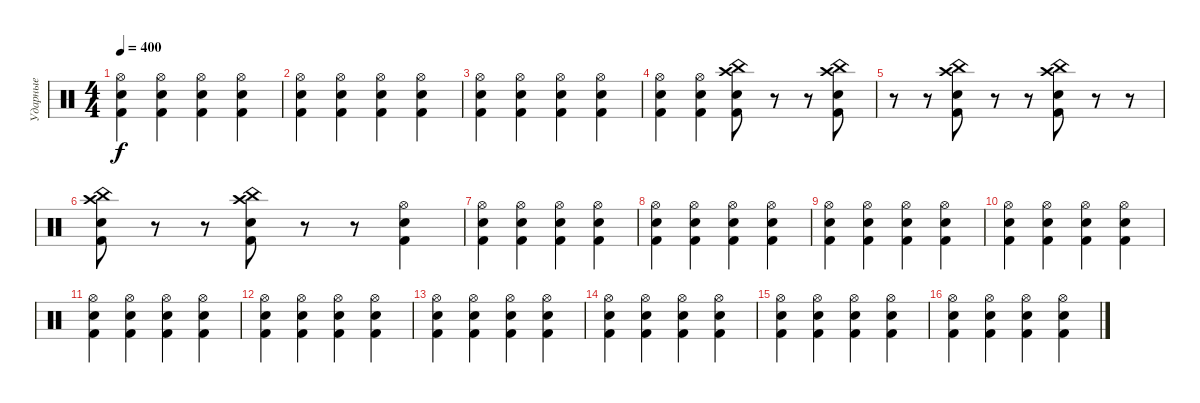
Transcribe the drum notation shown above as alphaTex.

\track ("Ударные" "Ударные") {instrument percussion}
\staff {score}
\articulation defaults
\ts (4 4)
\tempo 400
\clef neutral
\ks c
("Electric Snare (hit)" "Kick (hit) 2" "Hi-Hat (open)").4{dy f} ("Hi-Hat (open)" "Kick (hit) 2" "Electric Snare (hit)").4 ("Electric Snare (hit)" "Kick (hit) 2" "Hi-Hat (open)").4 ("Hi-Hat (open)" "Kick (hit) 2" "Electric Snare (hit)").4 |
("Electric Snare (hit)" "Kick (hit) 2" "Hi-Hat (open)").4 ("Hi-Hat (open)" "Kick (hit) 2" "Electric Snare (hit)").4 ("Electric Snare (hit)" "Kick (hit) 2" "Hi-Hat (open)").4 ("Hi-Hat (open)" "Kick (hit) 2" "Electric Snare (hit)").4 |
("Electric Snare (hit)" "Kick (hit) 2" "Hi-Hat (open)").4 ("Hi-Hat (open)" "Kick (hit) 2" "Electric Snare (hit)").4 ("Electric Snare (hit)" "Kick (hit) 2" "Hi-Hat (open)").4 ("Hi-Hat (open)" "Kick (hit) 2" "Electric Snare (hit)").4 |
("Electric Snare (hit)" "Kick (hit) 2" "Hi-Hat (open)").4 ("Hi-Hat (open)" "Kick (hit) 2" "Electric Snare (hit)").4 ("Kick (hit) 2" "Electric Snare (hit)" "Crash high (hit)" "China (hit)").8 r.8 r.8 ("China (hit)" "Crash high (hit)" "Kick (hit) 2" "Electric Snare (hit)").8 |
r.8 r.8 ("Kick (hit) 2" "Electric Snare (hit)" "Crash high (hit)" "China (hit)").8 r.8 r.8 ("China (hit)" "Crash high (hit)" "Kick (hit) 2" "Electric Snare (hit)").8 r.8 r.8 |
("China (hit)" "Crash high (hit)" "Kick (hit) 2" "Electric Snare (hit)").8 r.8 r.8 ("Kick (hit) 2" "Electric Snare (hit)" "Crash high (hit)" "China (hit)").8 r.8 r.8 ("Kick (hit) 2" "Electric Snare (hit)" "Hi-Hat (open)").4 |
("Electric Snare (hit)" "Kick (hit) 2" "Hi-Hat (open)").4 ("Hi-Hat (open)" "Kick (hit) 2" "Electric Snare (hit)").4 ("Electric Snare (hit)" "Kick (hit) 2" "Hi-Hat (open)").4 ("Hi-Hat (open)" "Kick (hit) 2" "Electric Snare (hit)").4 |
("Electric Snare (hit)" "Kick (hit) 2" "Hi-Hat (open)").4 ("Hi-Hat (open)" "Kick (hit) 2" "Electric Snare (hit)").4 ("Electric Snare (hit)" "Kick (hit) 2" "Hi-Hat (open)").4 ("Hi-Hat (open)" "Kick (hit) 2" "Electric Snare (hit)").4 |
("Electric Snare (hit)" "Kick (hit) 2" "Hi-Hat (open)").4 ("Hi-Hat (open)" "Kick (hit) 2" "Electric Snare (hit)").4 ("Electric Snare (hit)" "Kick (hit) 2" "Hi-Hat (open)").4 ("Hi-Hat (open)" "Kick (hit) 2" "Electric Snare (hit)").4 |
("Electric Snare (hit)" "Kick (hit) 2" "Hi-Hat (open)").4 ("Hi-Hat (open)" "Kick (hit) 2" "Electric Snare (hit)").4 ("Electric Snare (hit)" "Kick (hit) 2" "Hi-Hat (open)").4 ("Hi-Hat (open)" "Kick (hit) 2" "Electric Snare (hit)").4 |
("Electric Snare (hit)" "Kick (hit) 2" "Hi-Hat (open)").4 ("Hi-Hat (open)" "Kick (hit) 2" "Electric Snare (hit)").4 ("Electric Snare (hit)" "Kick (hit) 2" "Hi-Hat (open)").4 ("Hi-Hat (open)" "Kick (hit) 2" "Electric Snare (hit)").4 |
("Electric Snare (hit)" "Kick (hit) 2" "Hi-Hat (open)").4 ("Hi-Hat (open)" "Kick (hit) 2" "Electric Snare (hit)").4 ("Electric Snare (hit)" "Kick (hit) 2" "Hi-Hat (open)").4 ("Hi-Hat (open)" "Kick (hit) 2" "Electric Snare (hit)").4 |
("Electric Snare (hit)" "Kick (hit) 2" "Hi-Hat (open)").4 ("Hi-Hat (open)" "Kick (hit) 2" "Electric Snare (hit)").4 ("Electric Snare (hit)" "Kick (hit) 2" "Hi-Hat (open)").4 ("Hi-Hat (open)" "Kick (hit) 2" "Electric Snare (hit)").4 |
("Electric Snare (hit)" "Kick (hit) 2" "Hi-Hat (open)").4 ("Hi-Hat (open)" "Kick (hit) 2" "Electric Snare (hit)").4 ("Electric Snare (hit)" "Kick (hit) 2" "Hi-Hat (open)").4 ("Hi-Hat (open)" "Kick (hit) 2" "Electric Snare (hit)").4 |
("Electric Snare (hit)" "Kick (hit) 2" "Hi-Hat (open)").4 ("Hi-Hat (open)" "Kick (hit) 2" "Electric Snare (hit)").4 ("Electric Snare (hit)" "Kick (hit) 2" "Hi-Hat (open)").4 ("Hi-Hat (open)" "Kick (hit) 2" "Electric Snare (hit)").4 |
("Electric Snare (hit)" "Kick (hit) 2" "Hi-Hat (open)").4 ("Hi-Hat (open)" "Kick (hit) 2" "Electric Snare (hit)").4 ("Electric Snare (hit)" "Kick (hit) 2" "Hi-Hat (open)").4 ("Hi-Hat (open)" "Kick (hit) 2" "Electric Snare (hit)").4
